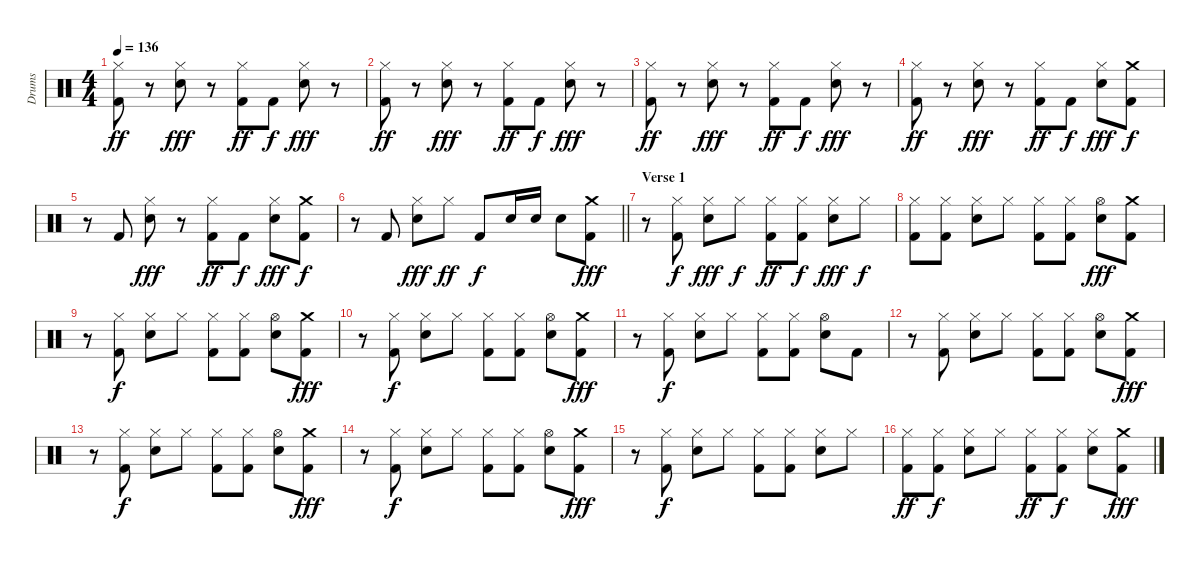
\track ("Drums" "Drums") {instrument percussion}
\staff {score}
\articulation defaults
\ts (4 4)
\tempo 136
\clef neutral
\ks c
("Hi-Hat (closed)" "Kick (hit) 2").8{dy ff} r.8 ("Hi-Hat (closed)" "Snare (hit) 2").8{dy fff} r.8 ("Hi-Hat (closed)" "Kick (hit) 2").8{dy ff} "Kick (hit) 2".8{dy f} ("Hi-Hat (closed)" "Snare (hit) 2").8{dy fff} r.8 |
("Hi-Hat (closed)" "Kick (hit) 2").8{dy ff} r.8 ("Hi-Hat (closed)" "Snare (hit) 2").8{dy fff} r.8 ("Hi-Hat (closed)" "Kick (hit) 2").8{dy ff} "Kick (hit) 2".8{dy f} ("Hi-Hat (closed)" "Snare (hit) 2").8{dy fff} r.8 |
("Hi-Hat (closed)" "Kick (hit) 2").8{dy ff} r.8 ("Hi-Hat (closed)" "Snare (hit) 2").8{dy fff} r.8 ("Hi-Hat (closed)" "Kick (hit) 2").8{dy ff} "Kick (hit) 2".8{dy f} ("Hi-Hat (closed)" "Snare (hit) 2").8{dy fff} r.8 |
("Hi-Hat (closed)" "Kick (hit) 2").8{dy ff} r.8 ("Hi-Hat (closed)" "Snare (hit) 2").8{dy fff} r.8 ("Hi-Hat (closed)" "Kick (hit) 2").8{dy ff} "Kick (hit) 2".8{dy f} ("Hi-Hat (closed)" "Snare (hit) 2").8{dy fff} ("Crash medium (hit)" "Kick (hit) 2").8{dy f} |
r.8 "Kick (hit) 2".8 ("Hi-Hat (closed)" "Snare (hit) 2").8{dy fff} r.8 ("Hi-Hat (closed)" "Kick (hit) 2").8{dy ff} "Kick (hit) 2".8{dy f} ("Hi-Hat (closed)" "Snare (hit) 2").8{dy fff} ("Crash medium (hit)" "Kick (hit) 2").8{dy f} |
\barLineRight lightlight
r.8 "Kick (hit) 2".8 ("Hi-Hat (closed)" "Snare (hit) 2").8{dy fff} "Hi-Hat (closed)".8{dy ff} "Kick (hit) 2".8{dy f} "Snare (hit) 2".16 "Snare (hit) 2".16 "Snare (hit) 2".8 ("Crash medium (hit)" "Kick (hit) 2").8{dy fff} |
\section ("" "Verse 1")
r.8 ("Hi-Hat (closed)" "Kick (hit) 2").8{dy f} ("Hi-Hat (closed)" "Snare (hit) 2").8{dy fff} "Hi-Hat (closed)".8{dy f} ("Hi-Hat (closed)" "Kick (hit) 2").8{dy ff} ("Hi-Hat (closed)" "Kick (hit) 2").8{dy f} ("Hi-Hat (closed)" "Snare (hit) 2").8{dy fff} "Hi-Hat (closed)".8{dy f} |
("Hi-Hat (closed)" "Kick (hit) 2").8 ("Hi-Hat (closed)" "Kick (hit) 2").8 ("Hi-Hat (closed)" "Snare (hit) 2").8 "Hi-Hat (closed)".8 ("Hi-Hat (closed)" "Kick (hit) 2").8 ("Hi-Hat (closed)" "Kick (hit) 2").8 ("Hi-Hat (open)" "Snare (hit) 2").8{dy fff} ("Crash medium (hit)" "Kick (hit) 2").8 |
r.8 ("Hi-Hat (closed)" "Kick (hit) 2").8{dy f} ("Hi-Hat (closed)" "Snare (hit) 2").8 "Hi-Hat (closed)".8 ("Hi-Hat (closed)" "Kick (hit) 2").8 ("Hi-Hat (closed)" "Kick (hit) 2").8 ("Hi-Hat (open)" "Snare (hit) 2").8 ("Crash medium (hit)" "Kick (hit) 2").8{dy fff} |
r.8 ("Hi-Hat (closed)" "Kick (hit) 2").8{dy f} ("Hi-Hat (closed)" "Snare (hit) 2").8 "Hi-Hat (closed)".8 ("Hi-Hat (closed)" "Kick (hit) 2").8 ("Hi-Hat (closed)" "Kick (hit) 2").8 ("Hi-Hat (open)" "Snare (hit) 2").8 ("Crash medium (hit)" "Kick (hit) 2").8{dy fff} |
r.8 ("Hi-Hat (closed)" "Kick (hit) 2").8{dy f} ("Hi-Hat (closed)" "Snare (hit) 2").8 "Hi-Hat (closed)".8 ("Hi-Hat (closed)" "Kick (hit) 2").8 ("Hi-Hat (closed)" "Kick (hit) 2").8 ("Hi-Hat (open)" "Snare (hit) 2").8 "Kick (hit) 2".8 |
r.8 ("Hi-Hat (closed)" "Kick (hit) 2").8 ("Hi-Hat (closed)" "Snare (hit) 2").8 "Hi-Hat (closed)".8 ("Hi-Hat (closed)" "Kick (hit) 2").8 ("Hi-Hat (closed)" "Kick (hit) 2").8 ("Hi-Hat (open)" "Snare (hit) 2").8 ("Crash medium (hit)" "Kick (hit) 2").8{dy fff} |
r.8 ("Hi-Hat (closed)" "Kick (hit) 2").8{dy f} ("Hi-Hat (closed)" "Snare (hit) 2").8 "Hi-Hat (closed)".8 ("Hi-Hat (closed)" "Kick (hit) 2").8 ("Hi-Hat (closed)" "Kick (hit) 2").8 ("Hi-Hat (open)" "Snare (hit) 2").8 ("Crash medium (hit)" "Kick (hit) 2").8{dy fff} |
r.8 ("Hi-Hat (closed)" "Kick (hit) 2").8{dy f} ("Hi-Hat (closed)" "Snare (hit) 2").8 "Hi-Hat (closed)".8 ("Hi-Hat (closed)" "Kick (hit) 2").8 ("Hi-Hat (closed)" "Kick (hit) 2").8 ("Hi-Hat (open)" "Snare (hit) 2").8 ("Crash medium (hit)" "Kick (hit) 2").8{dy fff} |
r.8 ("Hi-Hat (closed)" "Kick (hit) 2").8{dy f} ("Hi-Hat (closed)" "Snare (hit) 2").8 "Hi-Hat (closed)".8 ("Hi-Hat (closed)" "Kick (hit) 2").8 ("Hi-Hat (closed)" "Kick (hit) 2").8 ("Hi-Hat (closed)" "Snare (hit) 2").8 "Hi-Hat (closed)".8 |
("Hi-Hat (closed)" "Kick (hit) 2").8{dy ff} ("Hi-Hat (closed)" "Kick (hit) 2").8{dy f} ("Hi-Hat (closed)" "Snare (hit) 2").8 "Hi-Hat (closed)".8 ("Hi-Hat (closed)" "Kick (hit) 2").8{dy ff} ("Hi-Hat (closed)" "Kick (hit) 2").8{dy f} ("Hi-Hat (closed)" "Snare (hit) 2").8 ("Crash medium (hit)" "Kick (hit) 2").8{dy fff}
